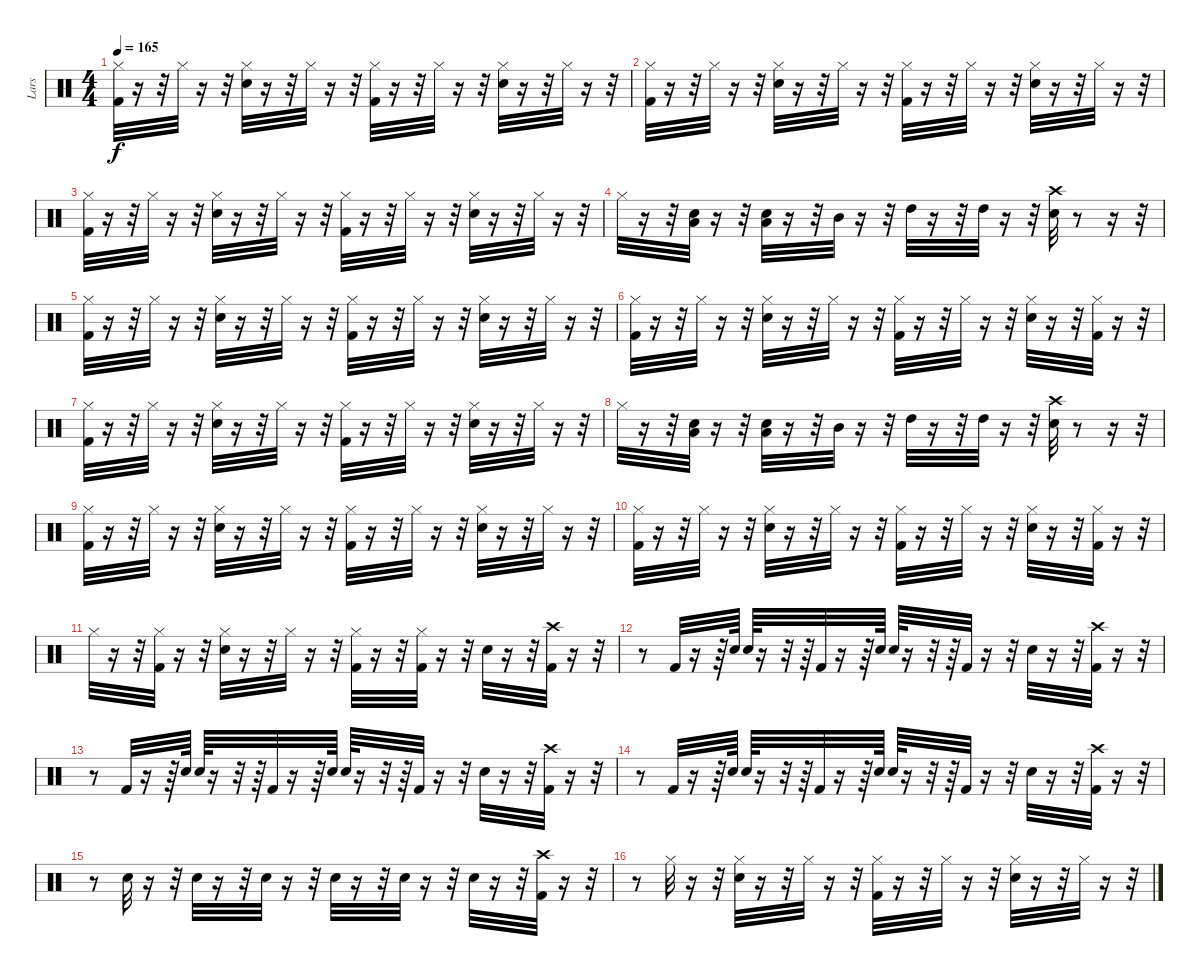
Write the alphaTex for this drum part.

\track ("Lars" "Lars") {instrument percussion}
\staff {score}
\articulation defaults
\ts (4 4)
\tempo 165
\clef neutral
\ks c
("Kick (hit) 2" "Hi-Hat (closed)").32{dy f} r.16 r.32 "Hi-Hat (closed)".32 r.16 r.32 ("Snare (hit) 2" "Hi-Hat (closed)").32 r.16 r.32 "Hi-Hat (closed)".32 r.16 r.32 ("Hi-Hat (closed)" "Kick (hit) 2").32 r.16 r.32 "Hi-Hat (closed)".32 r.16 r.32 ("Hi-Hat (closed)" "Snare (hit) 2").32 r.16 r.32 "Hi-Hat (closed)".32 r.16 r.32 |
("Kick (hit) 2" "Hi-Hat (closed)").32 r.16 r.32 "Hi-Hat (closed)".32 r.16 r.32 ("Snare (hit) 2" "Hi-Hat (closed)").32 r.16 r.32 "Hi-Hat (closed)".32 r.16 r.32 ("Hi-Hat (closed)" "Kick (hit) 2").32 r.16 r.32 "Hi-Hat (closed)".32 r.16 r.32 ("Hi-Hat (closed)" "Snare (hit) 2").32 r.16 r.32 "Hi-Hat (closed)".32 r.16 r.32 |
("Kick (hit) 2" "Hi-Hat (closed)").32 r.16 r.32 "Hi-Hat (closed)".32 r.16 r.32 ("Snare (hit) 2" "Hi-Hat (closed)").32 r.16 r.32 "Hi-Hat (closed)".32 r.16 r.32 ("Hi-Hat (closed)" "Kick (hit) 2").32 r.16 r.32 "Hi-Hat (closed)".32 r.16 r.32 ("Hi-Hat (closed)" "Snare (hit) 2").32 r.16 r.32 "Hi-Hat (closed)".32 r.16 r.32 |
"Hi-Hat (closed)".32 r.16 r.32 ("Low Tom (hit)" "Snare (hit) 2").32 r.16 r.32 ("Low Tom (hit)" "Snare (hit) 2").32 r.16 r.32 "Mid Tom (hit)".32 r.16 r.32 "High Tom (hit)".32 r.16 r.32 "High Tom (hit)".32 r.16 r.32 ("Crash high (hit)" "Snare (hit) 2").32 r.8 r.16 r.32 |
("Kick (hit) 2" "Hi-Hat (closed)").32 r.16 r.32 "Hi-Hat (closed)".32 r.16 r.32 ("Snare (hit) 2" "Hi-Hat (closed)").32 r.16 r.32 "Hi-Hat (closed)".32 r.16 r.32 ("Hi-Hat (closed)" "Kick (hit) 2").32 r.16 r.32 "Hi-Hat (closed)".32 r.16 r.32 ("Hi-Hat (closed)" "Snare (hit) 2").32 r.16 r.32 "Hi-Hat (closed)".32 r.16 r.32 |
("Kick (hit) 2" "Hi-Hat (closed)").32 r.16 r.32 "Hi-Hat (closed)".32 r.16 r.32 ("Snare (hit) 2" "Hi-Hat (closed)").32 r.16 r.32 "Hi-Hat (closed)".32 r.16 r.32 ("Hi-Hat (closed)" "Kick (hit) 2").32 r.16 r.32 "Hi-Hat (closed)".32 r.16 r.32 ("Hi-Hat (closed)" "Snare (hit) 2").32 r.16 r.32 ("Kick (hit) 2" "Hi-Hat (closed)").32 r.16 r.32 |
("Kick (hit) 2" "Hi-Hat (closed)").32 r.16 r.32 "Hi-Hat (closed)".32 r.16 r.32 ("Snare (hit) 2" "Hi-Hat (closed)").32 r.16 r.32 "Hi-Hat (closed)".32 r.16 r.32 ("Hi-Hat (closed)" "Kick (hit) 2").32 r.16 r.32 "Hi-Hat (closed)".32 r.16 r.32 ("Hi-Hat (closed)" "Snare (hit) 2").32 r.16 r.32 "Hi-Hat (closed)".32 r.16 r.32 |
"Hi-Hat (closed)".32 r.16 r.32 ("Low Tom (hit)" "Snare (hit) 2").32 r.16 r.32 ("Low Tom (hit)" "Snare (hit) 2").32 r.16 r.32 "Mid Tom (hit)".32 r.16 r.32 "High Tom (hit)".32 r.16 r.32 "High Tom (hit)".32 r.16 r.32 ("Crash high (hit)" "Snare (hit) 2").32 r.8 r.16 r.32 |
("Kick (hit) 2" "Hi-Hat (closed)").32 r.16 r.32 "Hi-Hat (closed)".32 r.16 r.32 ("Snare (hit) 2" "Hi-Hat (closed)").32 r.16 r.32 "Hi-Hat (closed)".32 r.16 r.32 ("Hi-Hat (closed)" "Kick (hit) 2").32 r.16 r.32 "Hi-Hat (closed)".32 r.16 r.32 ("Hi-Hat (closed)" "Snare (hit) 2").32 r.16 r.32 "Hi-Hat (closed)".32 r.16 r.32 |
("Kick (hit) 2" "Hi-Hat (closed)").32 r.16 r.32 "Hi-Hat (closed)".32 r.16 r.32 ("Snare (hit) 2" "Hi-Hat (closed)").32 r.16 r.32 "Hi-Hat (closed)".32 r.16 r.32 ("Hi-Hat (closed)" "Kick (hit) 2").32 r.16 r.32 "Hi-Hat (closed)".32 r.16 r.32 ("Hi-Hat (closed)" "Snare (hit) 2").32 r.16 r.32 ("Kick (hit) 2" "Hi-Hat (closed)").32 r.16 r.32 |
"Hi-Hat (closed)".32 r.16 r.32 ("Hi-Hat (closed)" "Kick (hit) 2").32 r.16 r.32 ("Snare (hit) 2" "Hi-Hat (closed)").32 r.16 r.32 "Hi-Hat (closed)".32 r.16 r.32 ("Hi-Hat (closed)" "Kick (hit) 2").32 r.16 r.32 ("Hi-Hat (closed)" "Kick (hit) 2").32 r.16 r.32 "Snare (hit) 2".32 r.16 r.32 ("Crash high (hit)" "Kick (hit) 2").32 r.16 r.32 |
r.8 "Kick (hit) 2".32 r.16 r.64 "Snare (hit) 2".64 "Snare (hit) 2".64 r.16 r.32 r.64 "Kick (hit) 2".32 r.16 r.64 "Snare (hit) 2".64 "Snare (hit) 2".64 r.16 r.32 r.64 "Kick (hit) 2".32 r.16 r.32 "Snare (hit) 2".32 r.16 r.32 ("Crash high (hit)" "Kick (hit) 2").32 r.16 r.32 |
r.8 "Kick (hit) 2".32 r.16 r.64 "Snare (hit) 2".64 "Snare (hit) 2".64 r.16 r.32 r.64 "Kick (hit) 2".32 r.16 r.64 "Snare (hit) 2".64 "Snare (hit) 2".64 r.16 r.32 r.64 "Kick (hit) 2".32 r.16 r.32 "Snare (hit) 2".32 r.16 r.32 ("Crash high (hit)" "Kick (hit) 2").32 r.16 r.32 |
r.8 "Kick (hit) 2".32 r.16 r.64 "Snare (hit) 2".64 "Snare (hit) 2".64 r.16 r.32 r.64 "Kick (hit) 2".32 r.16 r.64 "Snare (hit) 2".64 "Snare (hit) 2".64 r.16 r.32 r.64 "Kick (hit) 2".32 r.16 r.32 "Snare (hit) 2".32 r.16 r.32 ("Crash high (hit)" "Kick (hit) 2").32 r.16 r.32 |
r.8 "Snare (hit) 2".32 r.16 r.32 "Snare (hit) 2".32 r.16 r.32 "Snare (hit) 2".32 r.16 r.32 "Snare (hit) 2".32 r.16 r.32 "Snare (hit) 2".32 r.16 r.32 "Snare (hit) 2".32 r.16 r.32 ("Crash high (hit)" "Kick (hit) 2").32 r.16 r.32 |
r.8 "Hi-Hat (closed)".32 r.16 r.32 ("Snare (hit) 2" "Hi-Hat (closed)").32 r.16 r.32 "Hi-Hat (closed)".32 r.16 r.32 ("Kick (hit) 2" "Hi-Hat (closed)").32 r.16 r.32 "Hi-Hat (closed)".32 r.16 r.32 ("Snare (hit) 2" "Hi-Hat (closed)").32 r.16 r.32 "Hi-Hat (closed)".32 r.16 r.32
